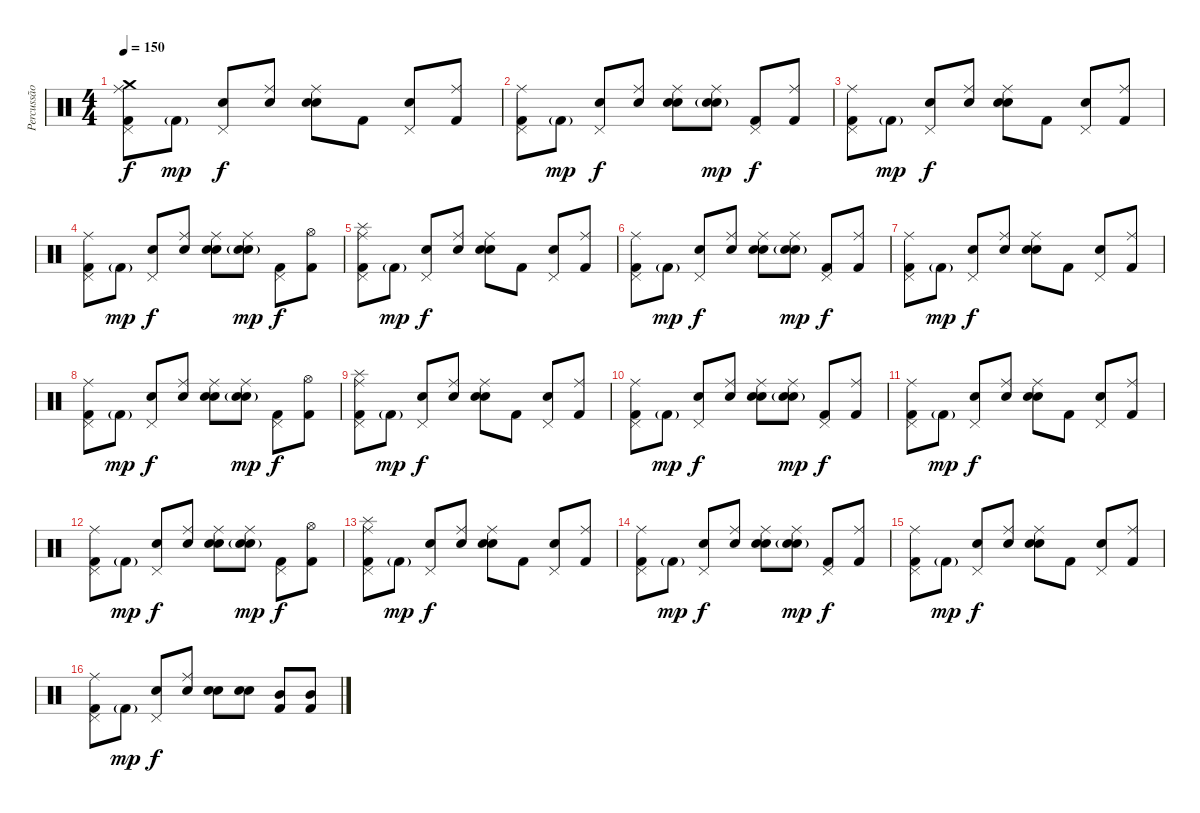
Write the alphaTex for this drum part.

\track ("Percussão" "Percussão") {instrument percussion}
\staff {score}
\articulation defaults
\ts (4 4)
\tempo 150
\clef neutral
\ks c
("Kick (hit) 2" "Pedal Hi-Hat (hit)" "Crash medium (hit)" "Ride (middle)").8{dy f} "Kick (hit) 2"{g}.8{dy mp} ("Snare (hit)" "Pedal Hi-Hat (hit)").8{dy f} ("Snare (hit)" "Ride (middle)").8 ("Snare (hit)" "Snare (hit) 2" "Ride (middle)").8 "Kick (hit) 2".8 ("Snare (hit)" "Pedal Hi-Hat (hit)").8 ("Kick (hit) 2" "Ride (middle)").8 |
("Kick (hit) 2" "Pedal Hi-Hat (hit)" "Ride (middle)").8 "Kick (hit) 2"{g}.8{dy mp} ("Snare (hit)" "Pedal Hi-Hat (hit)").8{dy f} ("Snare (hit)" "Ride (middle)").8 ("Snare (hit)" "Snare (hit) 2" "Ride (middle)").8 ("Snare (hit)" "Snare (hit) 2"{g} "Ride (middle)").8{dy mp} ("Kick (hit) 2" "Pedal Hi-Hat (hit)").8{dy f} ("Kick (hit) 2" "Ride (middle)").8 |
("Kick (hit) 2" "Pedal Hi-Hat (hit)" "Ride (middle)").8 "Kick (hit) 2"{g}.8{dy mp} ("Snare (hit)" "Pedal Hi-Hat (hit)").8{dy f} ("Snare (hit)" "Ride (middle)").8 ("Snare (hit)" "Snare (hit) 2" "Ride (middle)").8 "Kick (hit) 2".8 ("Snare (hit)" "Pedal Hi-Hat (hit)").8 ("Kick (hit) 2" "Ride (middle)").8 |
("Kick (hit) 2" "Pedal Hi-Hat (hit)" "Ride (middle)").8 "Kick (hit) 2"{g}.8{dy mp} ("Snare (hit)" "Pedal Hi-Hat (hit)").8{dy f} ("Snare (hit)" "Ride (middle)").8 ("Snare (hit)" "Snare (hit) 2" "Ride (middle)").8 ("Snare (hit)" "Snare (hit) 2"{g} "Ride (middle)").8{dy mp} ("Kick (hit) 2" "Pedal Hi-Hat (hit)").8{dy f} ("Kick (hit) 2" "Hi-Hat (open)").8 |
("Kick (hit) 2" "Pedal Hi-Hat (hit)" "Splash (hit)" "Ride (middle)").8 "Kick (hit) 2"{g}.8{dy mp} ("Snare (hit)" "Pedal Hi-Hat (hit)").8{dy f} ("Snare (hit)" "Ride (middle)").8 ("Snare (hit)" "Snare (hit) 2" "Ride (middle)").8 "Kick (hit) 2".8 ("Snare (hit)" "Pedal Hi-Hat (hit)").8 ("Kick (hit) 2" "Ride (middle)").8 |
("Kick (hit) 2" "Pedal Hi-Hat (hit)" "Ride (middle)").8 "Kick (hit) 2"{g}.8{dy mp} ("Snare (hit)" "Pedal Hi-Hat (hit)").8{dy f} ("Snare (hit)" "Ride (middle)").8 ("Snare (hit)" "Snare (hit) 2" "Ride (middle)").8 ("Snare (hit)" "Snare (hit) 2"{g} "Ride (middle)").8{dy mp} ("Kick (hit) 2" "Pedal Hi-Hat (hit)").8{dy f} ("Kick (hit) 2" "Ride (middle)").8 |
("Kick (hit) 2" "Pedal Hi-Hat (hit)" "Ride (middle)").8 "Kick (hit) 2"{g}.8{dy mp} ("Snare (hit)" "Pedal Hi-Hat (hit)").8{dy f} ("Snare (hit)" "Ride (middle)").8 ("Snare (hit)" "Snare (hit) 2" "Ride (middle)").8 "Kick (hit) 2".8 ("Snare (hit)" "Pedal Hi-Hat (hit)").8 ("Kick (hit) 2" "Ride (middle)").8 |
("Kick (hit) 2" "Pedal Hi-Hat (hit)" "Ride (middle)").8 "Kick (hit) 2"{g}.8{dy mp} ("Snare (hit)" "Pedal Hi-Hat (hit)").8{dy f} ("Snare (hit)" "Ride (middle)").8 ("Snare (hit)" "Snare (hit) 2" "Ride (middle)").8 ("Snare (hit)" "Snare (hit) 2"{g} "Ride (middle)").8{dy mp} ("Kick (hit) 2" "Pedal Hi-Hat (hit)").8{dy f} ("Kick (hit) 2" "Hi-Hat (open)").8 |
("Kick (hit) 2" "Pedal Hi-Hat (hit)" "Splash (hit)" "Ride (middle)").8 "Kick (hit) 2"{g}.8{dy mp} ("Snare (hit)" "Pedal Hi-Hat (hit)").8{dy f} ("Snare (hit)" "Ride (middle)").8 ("Snare (hit)" "Snare (hit) 2" "Ride (middle)").8 "Kick (hit) 2".8 ("Snare (hit)" "Pedal Hi-Hat (hit)").8 ("Kick (hit) 2" "Ride (middle)").8 |
("Kick (hit) 2" "Pedal Hi-Hat (hit)" "Ride (middle)").8 "Kick (hit) 2"{g}.8{dy mp} ("Snare (hit)" "Pedal Hi-Hat (hit)").8{dy f} ("Snare (hit)" "Ride (middle)").8 ("Snare (hit)" "Snare (hit) 2" "Ride (middle)").8 ("Snare (hit)" "Snare (hit) 2"{g} "Ride (middle)").8{dy mp} ("Kick (hit) 2" "Pedal Hi-Hat (hit)").8{dy f} ("Kick (hit) 2" "Ride (middle)").8 |
("Kick (hit) 2" "Pedal Hi-Hat (hit)" "Ride (middle)").8 "Kick (hit) 2"{g}.8{dy mp} ("Snare (hit)" "Pedal Hi-Hat (hit)").8{dy f} ("Snare (hit)" "Ride (middle)").8 ("Snare (hit)" "Snare (hit) 2" "Ride (middle)").8 "Kick (hit) 2".8 ("Snare (hit)" "Pedal Hi-Hat (hit)").8 ("Kick (hit) 2" "Ride (middle)").8 |
("Kick (hit) 2" "Pedal Hi-Hat (hit)" "Ride (middle)").8 "Kick (hit) 2"{g}.8{dy mp} ("Snare (hit)" "Pedal Hi-Hat (hit)").8{dy f} ("Snare (hit)" "Ride (middle)").8 ("Snare (hit)" "Snare (hit) 2" "Ride (middle)").8 ("Snare (hit)" "Snare (hit) 2"{g} "Ride (middle)").8{dy mp} ("Kick (hit) 2" "Pedal Hi-Hat (hit)").8{dy f} ("Kick (hit) 2" "Hi-Hat (open)").8 |
("Kick (hit) 2" "Pedal Hi-Hat (hit)" "Splash (hit)" "Ride (middle)").8 "Kick (hit) 2"{g}.8{dy mp} ("Snare (hit)" "Pedal Hi-Hat (hit)").8{dy f} ("Snare (hit)" "Ride (middle)").8 ("Snare (hit)" "Snare (hit) 2" "Ride (middle)").8 "Kick (hit) 2".8 ("Snare (hit)" "Pedal Hi-Hat (hit)").8 ("Kick (hit) 2" "Ride (middle)").8 |
("Kick (hit) 2" "Pedal Hi-Hat (hit)" "Ride (middle)").8 "Kick (hit) 2"{g}.8{dy mp} ("Snare (hit)" "Pedal Hi-Hat (hit)").8{dy f} ("Snare (hit)" "Ride (middle)").8 ("Snare (hit)" "Snare (hit) 2" "Ride (middle)").8 ("Snare (hit)" "Snare (hit) 2"{g} "Ride (middle)").8{dy mp} ("Kick (hit) 2" "Pedal Hi-Hat (hit)").8{dy f} ("Kick (hit) 2" "Ride (middle)").8 |
("Kick (hit) 2" "Pedal Hi-Hat (hit)" "Ride (middle)").8 "Kick (hit) 2"{g}.8{dy mp} ("Snare (hit)" "Pedal Hi-Hat (hit)").8{dy f} ("Snare (hit)" "Ride (middle)").8 ("Snare (hit)" "Snare (hit) 2" "Ride (middle)").8 "Kick (hit) 2".8 ("Snare (hit)" "Pedal Hi-Hat (hit)").8 ("Kick (hit) 2" "Ride (middle)").8 |
("Kick (hit) 2" "Pedal Hi-Hat (hit)" "Ride (middle)").8 "Kick (hit) 2"{g}.8{dy mp} ("Snare (hit)" "Pedal Hi-Hat (hit)").8{dy f} ("Snare (hit)" "Ride (middle)").8 ("Snare (hit)" "Snare (hit) 2").8 ("Snare (hit)" "Snare (hit) 2").8 ("Kick (hit) 2" "Mid Tom (hit)").8 ("Kick (hit) 2" "Mid Tom (hit)").8
